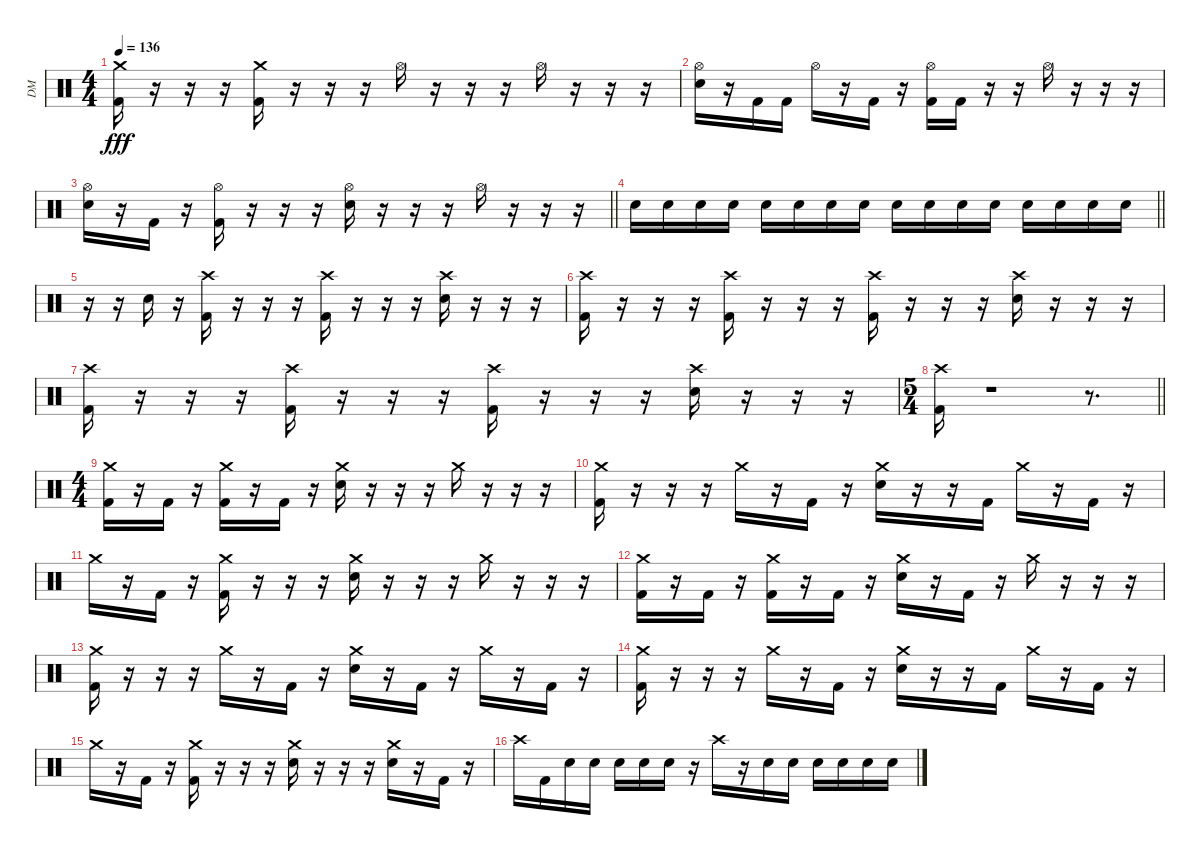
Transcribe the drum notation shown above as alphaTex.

\track ("DM" "DM") {instrument percussion}
\staff {score}
\articulation defaults
\ts (4 4)
\tempo 136
\clef neutral
\ks c
("Crash medium (hit)" "Kick (hit) 2").16{dy fff} r.16 r.16 r.16 ("Crash medium (hit)" "Kick (hit) 2").16 r.16 r.16 r.16 "Hi-Hat (open)".16 r.16 r.16 r.16 "Hi-Hat (open)".16 r.16 r.16 r.16 |
("Hi-Hat (open)" "Electric Snare (hit)").16 r.16 "Kick (hit) 2".16 "Kick (hit) 2".16 "Hi-Hat (open)".16 r.16 "Kick (hit) 2".16 r.16 ("Hi-Hat (open)" "Kick (hit) 2").16 "Kick (hit) 2".16 r.16 r.16 "Hi-Hat (open)".16 r.16 r.16 r.16 |
\barLineRight lightlight
("Hi-Hat (open)" "Electric Snare (hit)").16 r.16 "Kick (hit) 2".16 r.16 ("Hi-Hat (open)" "Kick (hit) 2").16 r.16 r.16 r.16 ("Hi-Hat (open)" "Electric Snare (hit)").16 r.16 r.16 r.16 "Hi-Hat (open)".16 r.16 r.16 r.16 |
\section ("" "")
\barLineRight lightlight "Electric Snare (hit)".16 "Electric Snare (hit)".16 "Electric Snare (hit)".16 "Electric Snare (hit)".16 "Electric Snare (hit)".16 "Electric Snare (hit)".16 "Electric Snare (hit)".16 "Electric Snare (hit)".16 "Electric Snare (hit)".16 "Electric Snare (hit)".16 "Electric Snare (hit)".16 "Electric Snare (hit)".16 "Electric Snare (hit)".16 "Electric Snare (hit)".16 "Electric Snare (hit)".16 "Electric Snare (hit)".16
|
r.16 r.16 "Electric Snare (hit)".16 r.16 ("Crash high (hit)" "Kick (hit) 2").16 r.16 r.16 r.16 ("Crash high (hit)" "Kick (hit) 2").16 r.16 r.16 r.16 ("Crash high (hit)" "Electric Snare (hit)").16 r.16 r.16 r.16 |
("Crash high (hit)" "Kick (hit) 2").16 r.16 r.16 r.16 ("Crash high (hit)" "Kick (hit) 2").16 r.16 r.16 r.16 ("Crash high (hit)" "Kick (hit) 2").16 r.16 r.16 r.16 ("Crash high (hit)" "Electric Snare (hit)").16 r.16 r.16 r.16 |
("Crash high (hit)" "Kick (hit) 2").16 r.16 r.16 r.16 ("Crash high (hit)" "Kick (hit) 2").16 r.16 r.16 r.16 ("Crash high (hit)" "Kick (hit) 2").16 r.16 r.16 r.16 ("Crash high (hit)" "Electric Snare (hit)").16 r.16 r.16 r.16 |
\ts (5 4)
\barLineRight lightlight
("Crash high (hit)" "Kick (hit) 2").16 r.1 r.8{d} |
\ts (4 4)
\section ("" "")
("Crash medium (hit)" "Kick (hit) 2").16 r.16 "Kick (hit) 2".16 r.16 ("Crash medium (hit)" "Kick (hit) 2").16 r.16 "Kick (hit) 2".16 r.16 ("Crash medium (hit)" "Electric Snare (hit)").16 r.16 r.16 r.16 "Crash medium (hit)".16 r.16 r.16 r.16 |
("Crash medium (hit)" "Kick (hit) 2").16 r.16 r.16 r.16 "Crash medium (hit)".16 r.16 "Kick (hit) 2".16 r.16 ("Crash medium (hit)" "Electric Snare (hit)").16 r.16 r.16 "Kick (hit) 2".16 "Crash medium (hit)".16 r.16 "Kick (hit) 2".16 r.16 |
"Crash medium (hit)".16 r.16 "Kick (hit) 2".16 r.16 ("Crash medium (hit)" "Kick (hit) 2").16 r.16 r.16 r.16 ("Crash medium (hit)" "Electric Snare (hit)").16 r.16 r.16 r.16 "Crash medium (hit)".16 r.16 r.16 r.16 |
("Crash medium (hit)" "Kick (hit) 2").16 r.16 "Kick (hit) 2".16 r.16 ("Crash medium (hit)" "Kick (hit) 2").16 r.16 "Kick (hit) 2".16 r.16 ("Crash medium (hit)" "Electric Snare (hit)").16 r.16 "Kick (hit) 2".16 r.16 "Crash medium (hit)".16 r.16 r.16 r.16 |
("Crash medium (hit)" "Kick (hit) 2").16 r.16 r.16 r.16 "Crash medium (hit)".16 r.16 "Kick (hit) 2".16 r.16 ("Crash medium (hit)" "Electric Snare (hit)").16 r.16 "Kick (hit) 2".16 r.16 "Crash medium (hit)".16 r.16 "Kick (hit) 2".16 r.16 |
("Crash medium (hit)" "Kick (hit) 2").16 r.16 r.16 r.16 "Crash medium (hit)".16 r.16 "Kick (hit) 2".16 r.16 ("Crash medium (hit)" "Electric Snare (hit)").16 r.16 r.16 "Kick (hit) 2".16 "Crash medium (hit)".16 r.16 "Kick (hit) 2".16 r.16 |
"Crash medium (hit)".16 r.16 "Kick (hit) 2".16 r.16 ("Crash medium (hit)" "Kick (hit) 2").16 r.16 r.16 r.16 ("Crash medium (hit)" "Electric Snare (hit)").16 r.16 r.16 r.16 ("Crash medium (hit)" "Electric Snare (hit)").16 r.16 "Kick (hit) 2".16 r.16 |
"Crash high (hit)".16 "Kick (hit) 2".16 "Electric Snare (hit)".16 "Electric Snare (hit)".16 "Electric Snare (hit)".16 "Electric Snare (hit)".16 "Electric Snare (hit)".16 r.16 "Crash high (hit)".16 r.16 "Electric Snare (hit)".16 "Electric Snare (hit)".16 "Electric Snare (hit)".16 "Electric Snare (hit)".16 "Electric Snare (hit)".16 "Electric Snare (hit)".16
